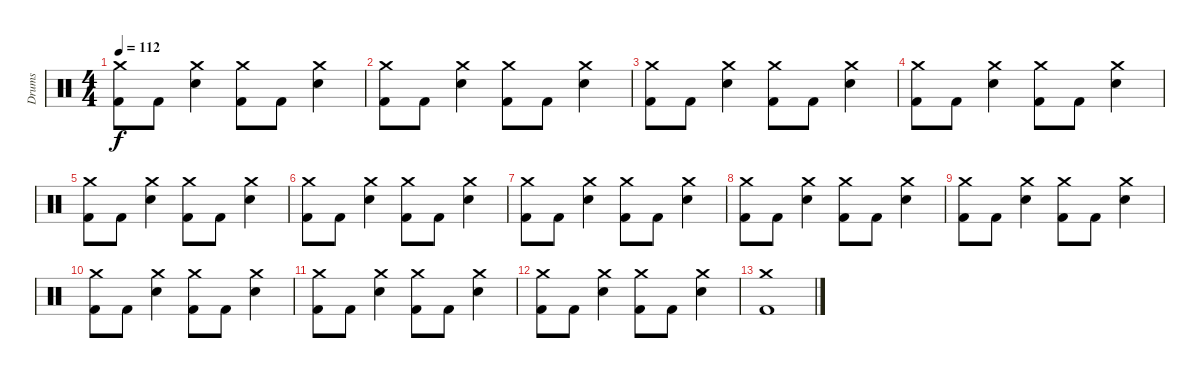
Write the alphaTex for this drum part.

\track ("Drums" "Drums") {instrument percussion}
\staff {score}
\articulation defaults
\ts (4 4)
\tempo 112
\clef neutral
\ks c
("Crash medium (hit)" "Kick (hit) 2").8{dy f} "Kick (hit) 2".8 ("Crash medium (hit)" "Snare (hit) 2").4 ("Crash medium (hit)" "Kick (hit) 2").8 "Kick (hit) 2".8 ("Crash medium (hit)" "Snare (hit) 2").4 |
("Crash medium (hit)" "Kick (hit) 2").8 "Kick (hit) 2".8 ("Crash medium (hit)" "Snare (hit) 2").4 ("Crash medium (hit)" "Kick (hit) 2").8 "Kick (hit) 2".8 ("Crash medium (hit)" "Snare (hit) 2").4 |
("Crash medium (hit)" "Kick (hit) 2").8 "Kick (hit) 2".8 ("Crash medium (hit)" "Snare (hit) 2").4 ("Crash medium (hit)" "Kick (hit) 2").8 "Kick (hit) 2".8 ("Crash medium (hit)" "Snare (hit) 2").4 |
("Crash medium (hit)" "Kick (hit) 2").8 "Kick (hit) 2".8 ("Crash medium (hit)" "Snare (hit) 2").4 ("Crash medium (hit)" "Kick (hit) 2").8 "Kick (hit) 2".8 ("Crash medium (hit)" "Snare (hit) 2").4 |
("Crash medium (hit)" "Kick (hit) 2").8 "Kick (hit) 2".8 ("Crash medium (hit)" "Snare (hit) 2").4 ("Crash medium (hit)" "Kick (hit) 2").8 "Kick (hit) 2".8 ("Crash medium (hit)" "Snare (hit) 2").4 |
("Crash medium (hit)" "Kick (hit) 2").8 "Kick (hit) 2".8 ("Crash medium (hit)" "Snare (hit) 2").4 ("Crash medium (hit)" "Kick (hit) 2").8 "Kick (hit) 2".8 ("Crash medium (hit)" "Snare (hit) 2").4 |
("Crash medium (hit)" "Kick (hit) 2").8 "Kick (hit) 2".8 ("Crash medium (hit)" "Snare (hit) 2").4 ("Crash medium (hit)" "Kick (hit) 2").8 "Kick (hit) 2".8 ("Crash medium (hit)" "Snare (hit) 2").4 |
("Crash medium (hit)" "Kick (hit) 2").8 "Kick (hit) 2".8 ("Crash medium (hit)" "Snare (hit) 2").4 ("Crash medium (hit)" "Kick (hit) 2").8 "Kick (hit) 2".8 ("Crash medium (hit)" "Snare (hit) 2").4 |
("Crash medium (hit)" "Kick (hit) 2").8 "Kick (hit) 2".8 ("Crash medium (hit)" "Snare (hit) 2").4 ("Crash medium (hit)" "Kick (hit) 2").8 "Kick (hit) 2".8 ("Crash medium (hit)" "Snare (hit) 2").4 |
("Crash medium (hit)" "Kick (hit) 2").8 "Kick (hit) 2".8 ("Crash medium (hit)" "Snare (hit) 2").4 ("Crash medium (hit)" "Kick (hit) 2").8 "Kick (hit) 2".8 ("Crash medium (hit)" "Snare (hit) 2").4 |
("Crash medium (hit)" "Kick (hit) 2").8 "Kick (hit) 2".8 ("Crash medium (hit)" "Snare (hit) 2").4 ("Crash medium (hit)" "Kick (hit) 2").8 "Kick (hit) 2".8 ("Crash medium (hit)" "Snare (hit) 2").4 |
("Crash medium (hit)" "Kick (hit) 2").8 "Kick (hit) 2".8 ("Crash medium (hit)" "Snare (hit) 2").4 ("Crash medium (hit)" "Kick (hit) 2").8 "Kick (hit) 2".8 ("Crash medium (hit)" "Snare (hit) 2").4 |
("Crash medium (hit)" "Kick (hit) 2").1
